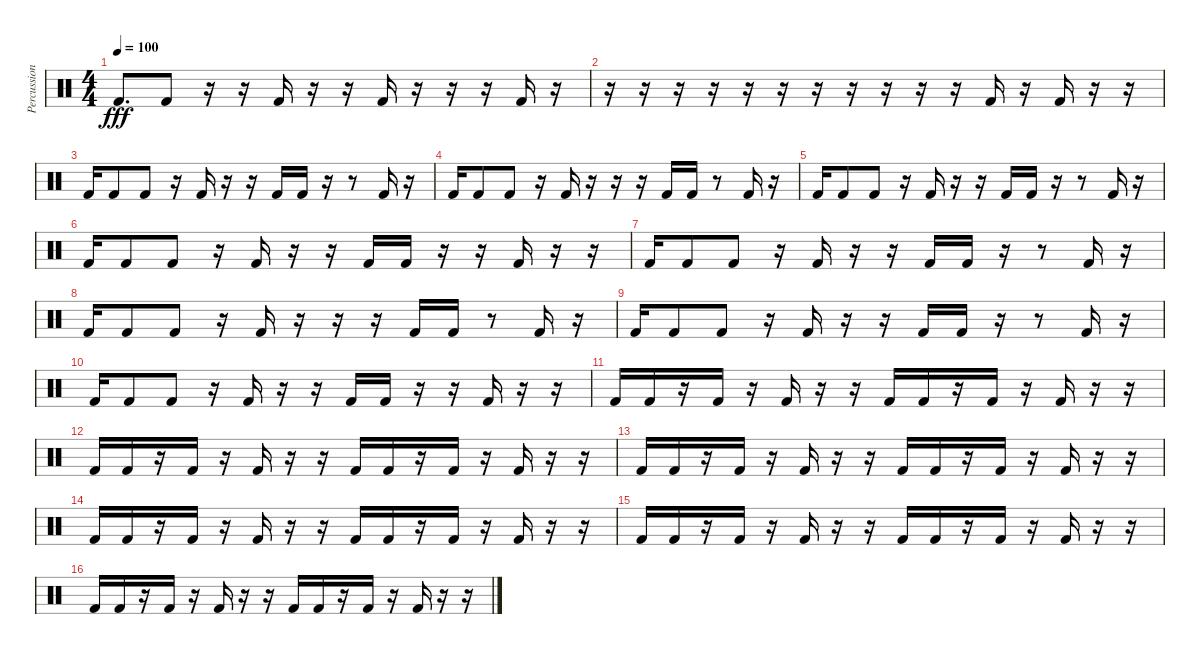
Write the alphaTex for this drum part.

\track ("Percussion" "Percussion") {instrument percussion}
\staff {score}
\articulation defaults
\ts (4 4)
\tempo 100
\clef neutral
\ks c "Kick (hit) 2".8{d dy fff} "Kick (hit) 2".8
r.16 r.16 "Kick (hit) 2".16 r.16 r.16 "Kick (hit) 2".16 r.16 r.16 r.16 "Kick (hit) 2".16 r.16 |
r.16 r.16 r.16 r.16 r.16 r.16 r.16 r.16 r.16 r.16 r.16 "Kick (hit) 2".16 r.16 "Kick (hit) 2".16 r.16 r.16 |
"Kick (hit) 2".16 "Kick (hit) 2".8 "Kick (hit) 2".8 r.16 "Kick (hit) 2".16 r.16 r.16 "Kick (hit) 2".16 "Kick (hit) 2".16 r.16 r.8 "Kick (hit) 2".16 r.16 |
"Kick (hit) 2".16 "Kick (hit) 2".8 "Kick (hit) 2".8 r.16 "Kick (hit) 2".16 r.16 r.16 r.16 "Kick (hit) 2".16 "Kick (hit) 2".16 r.8 "Kick (hit) 2".16 r.16 |
"Kick (hit) 2".16 "Kick (hit) 2".8 "Kick (hit) 2".8 r.16 "Kick (hit) 2".16 r.16 r.16 "Kick (hit) 2".16 "Kick (hit) 2".16 r.16 r.8 "Kick (hit) 2".16 r.16 |
"Kick (hit) 2".16 "Kick (hit) 2".8 "Kick (hit) 2".8 r.16 "Kick (hit) 2".16 r.16 r.16 "Kick (hit) 2".16 "Kick (hit) 2".16 r.16 r.16 "Kick (hit) 2".16 r.16 r.16 |
"Kick (hit) 2".16 "Kick (hit) 2".8 "Kick (hit) 2".8 r.16 "Kick (hit) 2".16 r.16 r.16 "Kick (hit) 2".16 "Kick (hit) 2".16 r.16 r.8 "Kick (hit) 2".16 r.16 |
"Kick (hit) 2".16 "Kick (hit) 2".8 "Kick (hit) 2".8 r.16 "Kick (hit) 2".16 r.16 r.16 r.16 "Kick (hit) 2".16 "Kick (hit) 2".16 r.8 "Kick (hit) 2".16 r.16 |
"Kick (hit) 2".16 "Kick (hit) 2".8 "Kick (hit) 2".8 r.16 "Kick (hit) 2".16 r.16 r.16 "Kick (hit) 2".16 "Kick (hit) 2".16 r.16 r.8 "Kick (hit) 2".16 r.16 |
"Kick (hit) 2".16 "Kick (hit) 2".8 "Kick (hit) 2".8 r.16 "Kick (hit) 2".16 r.16 r.16 "Kick (hit) 2".16 "Kick (hit) 2".16 r.16 r.16 "Kick (hit) 2".16 r.16 r.16 |
"Kick (hit) 2".16 "Kick (hit) 2".16 r.16 "Kick (hit) 2".16 r.16 "Kick (hit) 2".16 r.16 r.16 "Kick (hit) 2".16 "Kick (hit) 2".16 r.16 "Kick (hit) 2".16 r.16 "Kick (hit) 2".16 r.16 r.16 |
"Kick (hit) 2".16 "Kick (hit) 2".16 r.16 "Kick (hit) 2".16 r.16 "Kick (hit) 2".16 r.16 r.16 "Kick (hit) 2".16 "Kick (hit) 2".16 r.16 "Kick (hit) 2".16 r.16 "Kick (hit) 2".16 r.16 r.16 |
"Kick (hit) 2".16 "Kick (hit) 2".16 r.16 "Kick (hit) 2".16 r.16 "Kick (hit) 2".16 r.16 r.16 "Kick (hit) 2".16 "Kick (hit) 2".16 r.16 "Kick (hit) 2".16 r.16 "Kick (hit) 2".16 r.16 r.16 |
"Kick (hit) 2".16 "Kick (hit) 2".16 r.16 "Kick (hit) 2".16 r.16 "Kick (hit) 2".16 r.16 r.16 "Kick (hit) 2".16 "Kick (hit) 2".16 r.16 "Kick (hit) 2".16 r.16 "Kick (hit) 2".16 r.16 r.16 |
"Kick (hit) 2".16 "Kick (hit) 2".16 r.16 "Kick (hit) 2".16 r.16 "Kick (hit) 2".16 r.16 r.16 "Kick (hit) 2".16 "Kick (hit) 2".16 r.16 "Kick (hit) 2".16 r.16 "Kick (hit) 2".16 r.16 r.16 |
"Kick (hit) 2".16 "Kick (hit) 2".16 r.16 "Kick (hit) 2".16 r.16 "Kick (hit) 2".16 r.16 r.16 "Kick (hit) 2".16 "Kick (hit) 2".16 r.16 "Kick (hit) 2".16 r.16 "Kick (hit) 2".16 r.16 r.16
